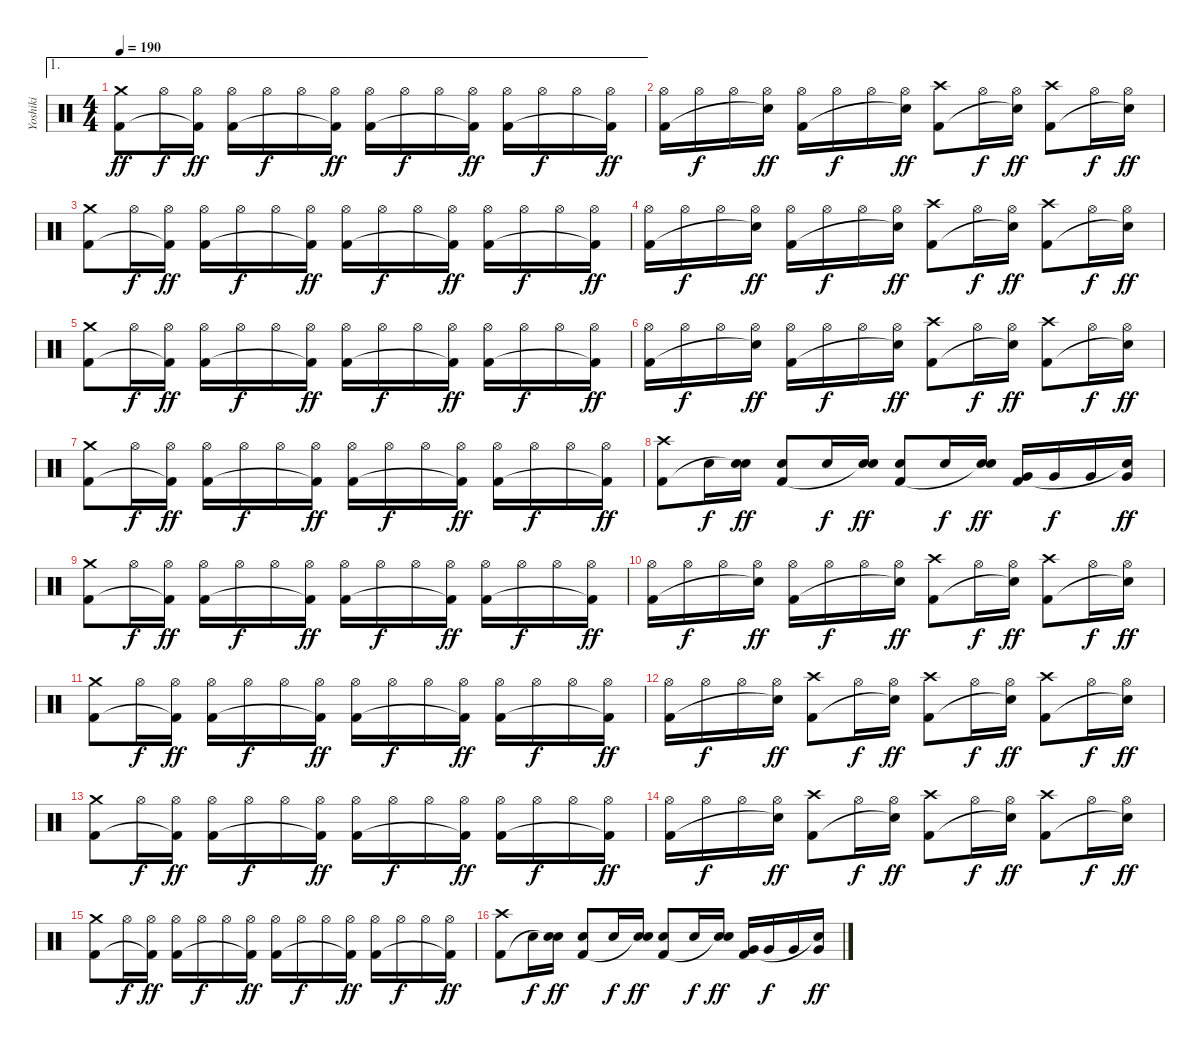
\track ("Yoshiki" "Yoshiki") {instrument percussion}
\staff {score}
\articulation defaults
\ae 1
\ts (4 4)
\tempo 190
\clef neutral
\ks c
("Crash medium (hit)" "Kick (hit) 2").8{dy ff} "Hi-Hat (open)".16{dy f} ("Hi-Hat (open)" "Kick (hit) 2"{t}).16{dy ff} ("Hi-Hat (open)" "Kick (hit) 2").16 "Hi-Hat (open)".16{dy f} "Hi-Hat (open)".16 ("Hi-Hat (open)" "Kick (hit) 2"{t}).16{dy ff} ("Hi-Hat (open)" "Kick (hit) 2").16 "Hi-Hat (open)".16{dy f} "Hi-Hat (open)".16 ("Hi-Hat (open)" "Kick (hit) 2"{t}).16{dy ff} ("Hi-Hat (open)" "Kick (hit) 2").16 "Hi-Hat (open)".16{dy f} "Hi-Hat (open)".16 ("Hi-Hat (open)" "Kick (hit) 2"{t}).16{dy ff} |
("Hi-Hat (open)" "Kick (hit) 2").16 "Hi-Hat (open)".16{dy f} "Hi-Hat (open)".16 ("Hi-Hat (open)" "Snare (hit)"{t}).16{dy ff} ("Hi-Hat (open)" "Kick (hit) 2").16 "Hi-Hat (open)".16{dy f} "Hi-Hat (open)".16 ("Hi-Hat (open)" "Snare (hit)"{t}).16{dy ff} ("Crash high (hit)" "Kick (hit) 2").8 "Hi-Hat (open)".16{dy f} ("Hi-Hat (open)" "Snare (hit)"{t}).16{dy ff} ("Crash high (hit)" "Kick (hit) 2").8 "Hi-Hat (open)".16{dy f} ("Hi-Hat (open)" "Snare (hit)"{t}).16{dy ff} |
("Crash medium (hit)" "Kick (hit) 2").8 "Hi-Hat (open)".16{dy f} ("Hi-Hat (open)" "Kick (hit) 2"{t}).16{dy ff} ("Hi-Hat (open)" "Kick (hit) 2").16 "Hi-Hat (open)".16{dy f} "Hi-Hat (open)".16 ("Hi-Hat (open)" "Kick (hit) 2"{t}).16{dy ff} ("Hi-Hat (open)" "Kick (hit) 2").16 "Hi-Hat (open)".16{dy f} "Hi-Hat (open)".16 ("Hi-Hat (open)" "Kick (hit) 2"{t}).16{dy ff} ("Hi-Hat (open)" "Kick (hit) 2").16 "Hi-Hat (open)".16{dy f} "Hi-Hat (open)".16 ("Hi-Hat (open)" "Kick (hit) 2"{t}).16{dy ff} |
("Hi-Hat (open)" "Kick (hit) 2").16 "Hi-Hat (open)".16{dy f} "Hi-Hat (open)".16 ("Hi-Hat (open)" "Snare (hit)"{t}).16{dy ff} ("Hi-Hat (open)" "Kick (hit) 2").16 "Hi-Hat (open)".16{dy f} "Hi-Hat (open)".16 ("Hi-Hat (open)" "Snare (hit)"{t}).16{dy ff} ("Crash high (hit)" "Kick (hit) 2").8 "Hi-Hat (open)".16{dy f} ("Hi-Hat (open)" "Snare (hit)"{t}).16{dy ff} ("Crash high (hit)" "Kick (hit) 2").8 "Hi-Hat (open)".16{dy f} ("Hi-Hat (open)" "Snare (hit)"{t}).16{dy ff} |
("Crash medium (hit)" "Kick (hit) 2").8 "Hi-Hat (open)".16{dy f} ("Hi-Hat (open)" "Kick (hit) 2"{t}).16{dy ff} ("Hi-Hat (open)" "Kick (hit) 2").16 "Hi-Hat (open)".16{dy f} "Hi-Hat (open)".16 ("Hi-Hat (open)" "Kick (hit) 2"{t}).16{dy ff} ("Hi-Hat (open)" "Kick (hit) 2").16 "Hi-Hat (open)".16{dy f} "Hi-Hat (open)".16 ("Hi-Hat (open)" "Kick (hit) 2"{t}).16{dy ff} ("Hi-Hat (open)" "Kick (hit) 2").16 "Hi-Hat (open)".16{dy f} "Hi-Hat (open)".16 ("Hi-Hat (open)" "Kick (hit) 2"{t}).16{dy ff} |
("Hi-Hat (open)" "Kick (hit) 2").16 "Hi-Hat (open)".16{dy f} "Hi-Hat (open)".16 ("Hi-Hat (open)" "Snare (hit)"{t}).16{dy ff} ("Hi-Hat (open)" "Kick (hit) 2").16 "Hi-Hat (open)".16{dy f} "Hi-Hat (open)".16 ("Hi-Hat (open)" "Snare (hit)"{t}).16{dy ff} ("Crash high (hit)" "Kick (hit) 2").8 "Hi-Hat (open)".16{dy f} ("Hi-Hat (open)" "Snare (hit)"{t}).16{dy ff} ("Crash high (hit)" "Kick (hit) 2").8 "Hi-Hat (open)".16{dy f} ("Hi-Hat (open)" "Snare (hit)"{t}).16{dy ff} |
("Crash medium (hit)" "Kick (hit) 2").8 "Hi-Hat (open)".16{dy f} ("Hi-Hat (open)" "Kick (hit) 2"{t}).16{dy ff} ("Hi-Hat (open)" "Kick (hit) 2").16 "Hi-Hat (open)".16{dy f} "Hi-Hat (open)".16 ("Hi-Hat (open)" "Kick (hit) 2"{t}).16{dy ff} ("Hi-Hat (open)" "Kick (hit) 2").16 "Hi-Hat (open)".16{dy f} "Hi-Hat (open)".16 ("Hi-Hat (open)" "Kick (hit) 2"{t}).16{dy ff} ("Hi-Hat (open)" "Kick (hit) 2").16 "Hi-Hat (open)".16{dy f} "Hi-Hat (open)".16 ("Hi-Hat (open)" "Kick (hit) 2"{t}).16{dy ff} |
("Crash high (hit)" "Kick (hit) 2").8 "Snare (hit) 2".16{dy f} ("Snare (hit) 2" "Snare (hit)"{t}).16{dy ff} ("Snare (hit) 2" "Kick (hit) 2").8 "Snare (hit) 2".16{dy f} ("Snare (hit) 2" "Snare (hit)"{t}).16{dy ff} ("Snare (hit) 2" "Kick (hit) 2").8 "Snare (hit) 2".16{dy f} ("Snare (hit) 2" "Snare (hit)"{t}).16{dy ff} ("Very Low Tom (hit)" "Kick (hit) 2").16 "Very Low Tom (hit)".16{dy f} "Very Low Tom (hit)".16 ("Very Low Tom (hit)" "Snare (hit)"{t}).16{dy ff} |
("Crash medium (hit)" "Kick (hit) 2").8 "Hi-Hat (open)".16{dy f} ("Hi-Hat (open)" "Kick (hit) 2"{t}).16{dy ff} ("Hi-Hat (open)" "Kick (hit) 2").16 "Hi-Hat (open)".16{dy f} "Hi-Hat (open)".16 ("Hi-Hat (open)" "Kick (hit) 2"{t}).16{dy ff} ("Hi-Hat (open)" "Kick (hit) 2").16 "Hi-Hat (open)".16{dy f} "Hi-Hat (open)".16 ("Hi-Hat (open)" "Kick (hit) 2"{t}).16{dy ff} ("Hi-Hat (open)" "Kick (hit) 2").16 "Hi-Hat (open)".16{dy f} "Hi-Hat (open)".16 ("Hi-Hat (open)" "Kick (hit) 2"{t}).16{dy ff} |
("Hi-Hat (open)" "Kick (hit) 2").16 "Hi-Hat (open)".16{dy f} "Hi-Hat (open)".16 ("Hi-Hat (open)" "Snare (hit)"{t}).16{dy ff} ("Hi-Hat (open)" "Kick (hit) 2").16 "Hi-Hat (open)".16{dy f} "Hi-Hat (open)".16 ("Hi-Hat (open)" "Snare (hit)"{t}).16{dy ff} ("Crash high (hit)" "Kick (hit) 2").8 "Hi-Hat (open)".16{dy f} ("Hi-Hat (open)" "Snare (hit)"{t}).16{dy ff} ("Crash high (hit)" "Kick (hit) 2").8 "Hi-Hat (open)".16{dy f} ("Hi-Hat (open)" "Snare (hit)"{t}).16{dy ff} |
("Crash medium (hit)" "Kick (hit) 2").8 "Hi-Hat (open)".16{dy f} ("Hi-Hat (open)" "Kick (hit) 2"{t}).16{dy ff} ("Hi-Hat (open)" "Kick (hit) 2").16 "Hi-Hat (open)".16{dy f} "Hi-Hat (open)".16 ("Hi-Hat (open)" "Kick (hit) 2"{t}).16{dy ff} ("Hi-Hat (open)" "Kick (hit) 2").16 "Hi-Hat (open)".16{dy f} "Hi-Hat (open)".16 ("Hi-Hat (open)" "Kick (hit) 2"{t}).16{dy ff} ("Hi-Hat (open)" "Kick (hit) 2").16 "Hi-Hat (open)".16{dy f} "Hi-Hat (open)".16 ("Hi-Hat (open)" "Kick (hit) 2"{t}).16{dy ff} |
("Hi-Hat (open)" "Kick (hit) 2").16 "Hi-Hat (open)".16{dy f} "Hi-Hat (open)".16 ("Hi-Hat (open)" "Snare (hit)"{t}).16{dy ff} ("Crash high (hit)" "Kick (hit) 2").8 "Hi-Hat (open)".16{dy f} ("Hi-Hat (open)" "Snare (hit)"{t}).16{dy ff} ("Crash high (hit)" "Kick (hit) 2").8 "Hi-Hat (open)".16{dy f} ("Hi-Hat (open)" "Snare (hit)"{t}).16{dy ff} ("Crash high (hit)" "Kick (hit) 2").8 "Hi-Hat (open)".16{dy f} ("Hi-Hat (open)" "Snare (hit)"{t}).16{dy ff} |
("Crash medium (hit)" "Kick (hit) 2").8 "Hi-Hat (open)".16{dy f} ("Hi-Hat (open)" "Kick (hit) 2"{t}).16{dy ff} ("Hi-Hat (open)" "Kick (hit) 2").16 "Hi-Hat (open)".16{dy f} "Hi-Hat (open)".16 ("Hi-Hat (open)" "Kick (hit) 2"{t}).16{dy ff} ("Hi-Hat (open)" "Kick (hit) 2").16 "Hi-Hat (open)".16{dy f} "Hi-Hat (open)".16 ("Hi-Hat (open)" "Kick (hit) 2"{t}).16{dy ff} ("Hi-Hat (open)" "Kick (hit) 2").16 "Hi-Hat (open)".16{dy f} "Hi-Hat (open)".16 ("Hi-Hat (open)" "Kick (hit) 2"{t}).16{dy ff} |
("Hi-Hat (open)" "Kick (hit) 2").16 "Hi-Hat (open)".16{dy f} "Hi-Hat (open)".16 ("Hi-Hat (open)" "Snare (hit)"{t}).16{dy ff} ("Crash high (hit)" "Kick (hit) 2").8 "Hi-Hat (open)".16{dy f} ("Hi-Hat (open)" "Snare (hit)"{t}).16{dy ff} ("Crash high (hit)" "Kick (hit) 2").8 "Hi-Hat (open)".16{dy f} ("Hi-Hat (open)" "Snare (hit)"{t}).16{dy ff} ("Crash high (hit)" "Kick (hit) 2").8 "Hi-Hat (open)".16{dy f} ("Hi-Hat (open)" "Snare (hit)"{t}).16{dy ff} |
("Crash medium (hit)" "Kick (hit) 2").8 "Hi-Hat (open)".16{dy f} ("Hi-Hat (open)" "Kick (hit) 2"{t}).16{dy ff} ("Hi-Hat (open)" "Kick (hit) 2").16 "Hi-Hat (open)".16{dy f} "Hi-Hat (open)".16 ("Hi-Hat (open)" "Kick (hit) 2"{t}).16{dy ff} ("Hi-Hat (open)" "Kick (hit) 2").16 "Hi-Hat (open)".16{dy f} "Hi-Hat (open)".16 ("Hi-Hat (open)" "Kick (hit) 2"{t}).16{dy ff} ("Hi-Hat (open)" "Kick (hit) 2").16 "Hi-Hat (open)".16{dy f} "Hi-Hat (open)".16 ("Hi-Hat (open)" "Kick (hit) 2"{t}).16{dy ff} |
("Crash high (hit)" "Kick (hit) 2").8 "Snare (hit) 2".16{dy f} ("Snare (hit) 2" "Snare (hit)"{t}).16{dy ff} ("Snare (hit) 2" "Kick (hit) 2").8 "Snare (hit) 2".16{dy f} ("Snare (hit) 2" "Snare (hit)"{t}).16{dy ff} ("Snare (hit) 2" "Kick (hit) 2").8 "Snare (hit) 2".16{dy f} ("Snare (hit) 2" "Snare (hit)"{t}).16{dy ff} ("Very Low Tom (hit)" "Kick (hit) 2").16 "Very Low Tom (hit)".16{dy f} "Very Low Tom (hit)".16 ("Very Low Tom (hit)" "Snare (hit)"{t}).16{dy ff}
